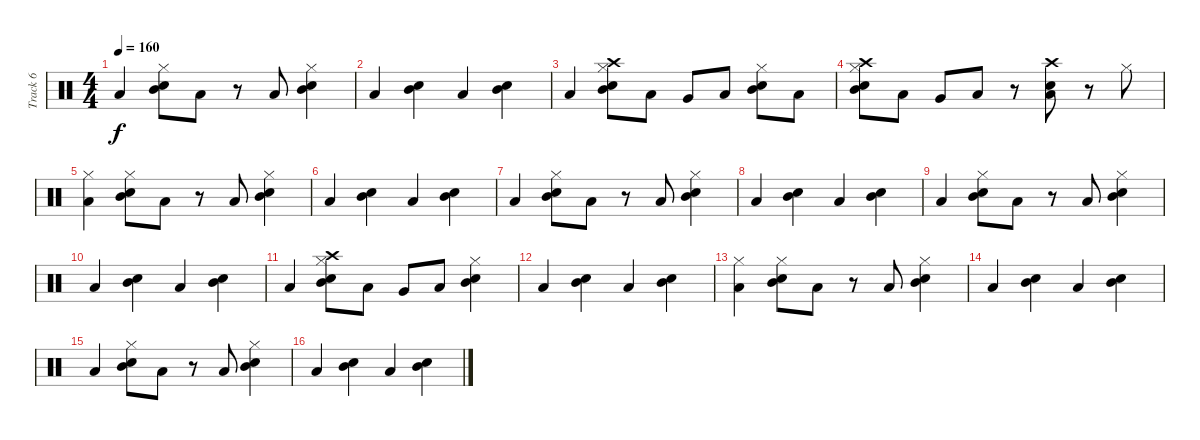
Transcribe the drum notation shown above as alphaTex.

\track ("Track 6" "Track 6") {instrument percussion}
\staff {score}
\articulation defaults
\ts (4 4)
\tempo 160
\clef neutral
\ks c "Low Tom (hit)".4{dy f}
("Mid Tom (hit)" "Hi-Hat (closed)" "Snare (hit) 2").8 "Low Tom (hit)".8 r.8 "Low Tom (hit)".8 ("Mid Tom (hit)" "Hi-Hat (closed)" "Snare (hit) 2").4 |
"Low Tom (hit)".4 ("Mid Tom (hit)" "Snare (hit) 2").4 "Low Tom (hit)".4 ("Mid Tom (hit)" "Snare (hit) 2").4 |
"Low Tom (hit)".4 ("Mid Tom (hit)" "Hi-Hat (closed)" "Snare (hit) 2" "Crash high (hit)").8 "Low Tom (hit)".8 "Very Low Tom (hit)".8 "Low Floor Tom (hit)".8 ("Mid Tom (hit)" "Hi-Hat (closed)" "Snare (hit) 2").8 "Low Tom (hit)".8 |
("Mid Tom (hit)" "Hi-Hat (closed)" "Snare (hit) 2" "Crash high (hit)").8 "Low Tom (hit)".8 "Very Low Tom (hit)".8 "Low Floor Tom (hit)".8 r.8 ("Low Tom (hit)" "Crash high (hit)" "Snare (hit) 2").8 r.8 "Hi-Hat (closed)".8 |
("Low Tom (hit)" "Hi-Hat (closed)").4 ("Mid Tom (hit)" "Hi-Hat (closed)" "Snare (hit) 2").8 "Low Tom (hit)".8 r.8 "Low Tom (hit)".8 ("Mid Tom (hit)" "Hi-Hat (closed)" "Snare (hit) 2").4 |
"Low Tom (hit)".4 ("Mid Tom (hit)" "Snare (hit) 2").4 "Low Tom (hit)".4 ("Mid Tom (hit)" "Snare (hit) 2").4 |
"Low Tom (hit)".4 ("Mid Tom (hit)" "Hi-Hat (closed)" "Snare (hit) 2").8 "Low Tom (hit)".8 r.8 "Low Tom (hit)".8 ("Mid Tom (hit)" "Hi-Hat (closed)" "Snare (hit) 2").4 |
"Low Tom (hit)".4 ("Mid Tom (hit)" "Snare (hit) 2").4 "Low Tom (hit)".4 ("Mid Tom (hit)" "Snare (hit) 2").4 |
"Low Tom (hit)".4 ("Mid Tom (hit)" "Hi-Hat (closed)" "Snare (hit) 2").8 "Low Tom (hit)".8 r.8 "Low Tom (hit)".8 ("Mid Tom (hit)" "Hi-Hat (closed)" "Snare (hit) 2").4 |
"Low Tom (hit)".4 ("Mid Tom (hit)" "Snare (hit) 2").4 "Low Tom (hit)".4 ("Mid Tom (hit)" "Snare (hit) 2").4 |
"Low Tom (hit)".4 ("Mid Tom (hit)" "Hi-Hat (closed)" "Snare (hit) 2" "Crash high (hit)").8 "Low Tom (hit)".8 "Very Low Tom (hit)".8 "Low Floor Tom (hit)".8 ("Mid Tom (hit)" "Hi-Hat (closed)" "Snare (hit) 2").4 |
"Low Tom (hit)".4 ("Mid Tom (hit)" "Snare (hit) 2").4 "Low Tom (hit)".4 ("Mid Tom (hit)" "Snare (hit) 2").4 |
("Low Tom (hit)" "Hi-Hat (closed)").4 ("Mid Tom (hit)" "Hi-Hat (closed)" "Snare (hit) 2").8 "Low Tom (hit)".8 r.8 "Low Tom (hit)".8 ("Mid Tom (hit)" "Hi-Hat (closed)" "Snare (hit) 2").4 |
"Low Tom (hit)".4 ("Mid Tom (hit)" "Snare (hit) 2").4 "Low Tom (hit)".4 ("Mid Tom (hit)" "Snare (hit) 2").4 |
"Low Tom (hit)".4 ("Mid Tom (hit)" "Hi-Hat (closed)" "Snare (hit) 2").8 "Low Tom (hit)".8 r.8 "Low Tom (hit)".8 ("Mid Tom (hit)" "Hi-Hat (closed)" "Snare (hit) 2").4 |
"Low Tom (hit)".4 ("Mid Tom (hit)" "Snare (hit) 2").4 "Low Tom (hit)".4 ("Mid Tom (hit)" "Snare (hit) 2").4
